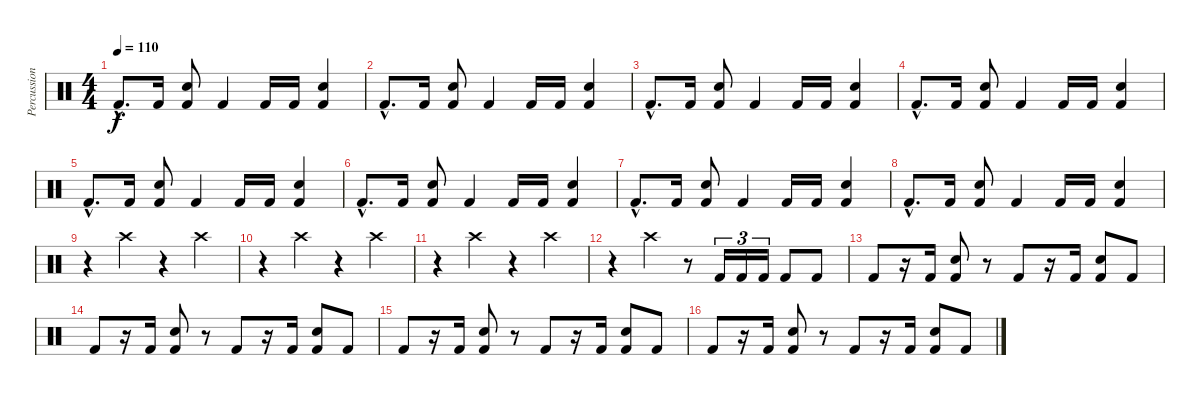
\track ("Percussioni" "Percussion") {instrument percussion}
\staff {score}
\articulation defaults
\ts (4 4)
\tempo 110
\clef neutral
\ks c "Kick (hit) 2"{hac}.8{d dy f} "Kick (hit) 2".16
("Snare (hit) 2" "Kick (hit) 2").8 "Kick (hit) 2".4 "Kick (hit) 2".16 "Kick (hit) 2".16 ("Snare (hit) 2" "Kick (hit) 2").4 |
"Kick (hit) 2"{hac}.8{d} "Kick (hit) 2".16 ("Snare (hit) 2" "Kick (hit) 2").8 "Kick (hit) 2".4 "Kick (hit) 2".16 "Kick (hit) 2".16 ("Snare (hit) 2" "Kick (hit) 2").4 |
"Kick (hit) 2"{hac}.8{d} "Kick (hit) 2".16 ("Snare (hit) 2" "Kick (hit) 2").8 "Kick (hit) 2".4 "Kick (hit) 2".16 "Kick (hit) 2".16 ("Snare (hit) 2" "Kick (hit) 2").4 |
"Kick (hit) 2"{hac}.8{d} "Kick (hit) 2".16 ("Snare (hit) 2" "Kick (hit) 2").8 "Kick (hit) 2".4 "Kick (hit) 2".16 "Kick (hit) 2".16 ("Snare (hit) 2" "Kick (hit) 2").4 |
"Kick (hit) 2"{hac}.8{d} "Kick (hit) 2".16 ("Snare (hit) 2" "Kick (hit) 2").8 "Kick (hit) 2".4 "Kick (hit) 2".16 "Kick (hit) 2".16 ("Snare (hit) 2" "Kick (hit) 2").4 |
"Kick (hit) 2"{hac}.8{d} "Kick (hit) 2".16 ("Snare (hit) 2" "Kick (hit) 2").8 "Kick (hit) 2".4 "Kick (hit) 2".16 "Kick (hit) 2".16 ("Snare (hit) 2" "Kick (hit) 2").4 |
"Kick (hit) 2"{hac}.8{d} "Kick (hit) 2".16 ("Snare (hit) 2" "Kick (hit) 2").8 "Kick (hit) 2".4 "Kick (hit) 2".16 "Kick (hit) 2".16 ("Snare (hit) 2" "Kick (hit) 2").4 |
"Kick (hit) 2"{hac}.8{d} "Kick (hit) 2".16 ("Snare (hit) 2" "Kick (hit) 2").8 "Kick (hit) 2".4 "Kick (hit) 2".16 "Kick (hit) 2".16 ("Snare (hit) 2" "Kick (hit) 2").4 |
r.4 "Crash high (hit)".4 r.4 "Crash high (hit)".4 |
r.4 "Crash high (hit)".4 r.4 "Crash high (hit)".4 |
r.4 "Crash high (hit)".4 r.4 "Crash high (hit)".4 |
r.4 "Crash high (hit)".4 r.8 "Kick (hit) 2".16{tu (3 2)} "Kick (hit) 2".16{tu (3 2)} "Kick (hit) 2".16{tu (3 2)} "Kick (hit) 2".8 "Kick (hit) 2".8 |
"Kick (hit) 2".8 r.16 "Kick (hit) 2".16 ("Snare (hit) 2" "Kick (hit) 2").8 r.8 "Kick (hit) 2".8 r.16 "Kick (hit) 2".16 ("Snare (hit) 2" "Kick (hit) 2").8 "Kick (hit) 2".8 |
"Kick (hit) 2".8 r.16 "Kick (hit) 2".16 ("Snare (hit) 2" "Kick (hit) 2").8 r.8 "Kick (hit) 2".8 r.16 "Kick (hit) 2".16 ("Snare (hit) 2" "Kick (hit) 2").8 "Kick (hit) 2".8 |
"Kick (hit) 2".8 r.16 "Kick (hit) 2".16 ("Snare (hit) 2" "Kick (hit) 2").8 r.8 "Kick (hit) 2".8 r.16 "Kick (hit) 2".16 ("Snare (hit) 2" "Kick (hit) 2").8 "Kick (hit) 2".8 |
"Kick (hit) 2".8 r.16 "Kick (hit) 2".16 ("Snare (hit) 2" "Kick (hit) 2").8 r.8 "Kick (hit) 2".8 r.16 "Kick (hit) 2".16 ("Snare (hit) 2" "Kick (hit) 2").8 "Kick (hit) 2".8
